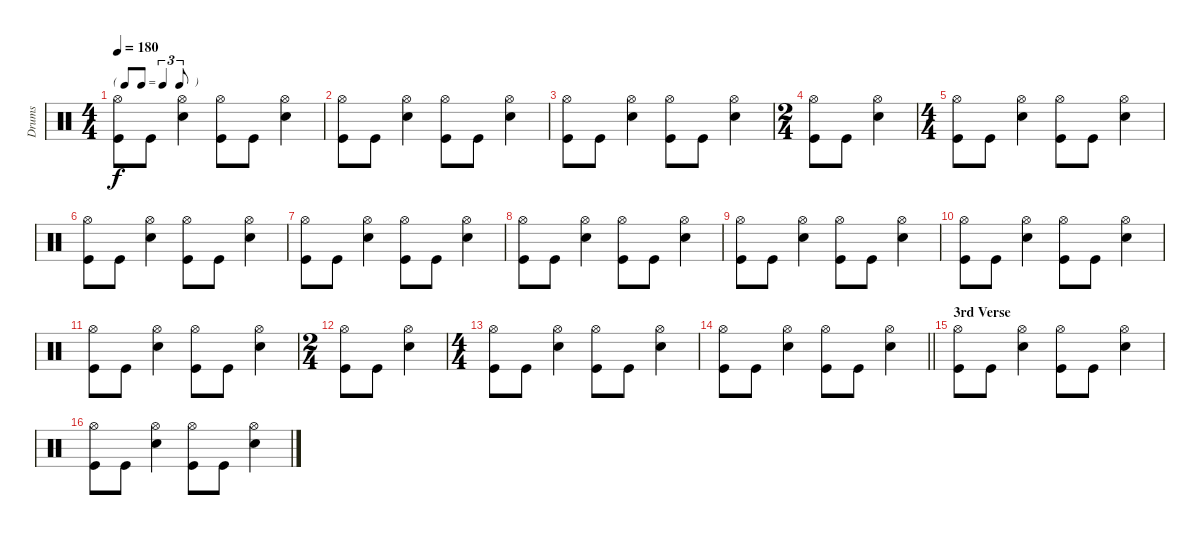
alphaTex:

\track ("Drums" "Drums") {instrument percussion}
\staff {score}
\articulation defaults
\ts (4 4)
\tf triplet8th
\tempo 180
\clef neutral
\ks c
("Hi-Hat (open)" "Kick (hit)").8{dy f} "Kick (hit)".8 ("Hi-Hat (open)" "Electric Snare (hit)").4 ("Hi-Hat (open)" "Kick (hit)").8 "Kick (hit)".8 ("Hi-Hat (open)" "Electric Snare (hit)").4 |
("Hi-Hat (open)" "Kick (hit)").8 "Kick (hit)".8 ("Hi-Hat (open)" "Electric Snare (hit)").4 ("Hi-Hat (open)" "Kick (hit)").8 "Kick (hit)".8 ("Hi-Hat (open)" "Electric Snare (hit)").4 |
("Hi-Hat (open)" "Kick (hit)").8 "Kick (hit)".8 ("Hi-Hat (open)" "Electric Snare (hit)").4 ("Hi-Hat (open)" "Kick (hit)").8 "Kick (hit)".8 ("Hi-Hat (open)" "Electric Snare (hit)").4 |
\ts (2 4)
("Hi-Hat (open)" "Kick (hit)").8 "Kick (hit)".8 ("Hi-Hat (open)" "Electric Snare (hit)").4 |
\ts (4 4)
("Hi-Hat (open)" "Kick (hit)").8 "Kick (hit)".8 ("Hi-Hat (open)" "Electric Snare (hit)").4 ("Hi-Hat (open)" "Kick (hit)").8 "Kick (hit)".8 ("Hi-Hat (open)" "Electric Snare (hit)").4 |
("Hi-Hat (open)" "Kick (hit)").8 "Kick (hit)".8 ("Hi-Hat (open)" "Electric Snare (hit)").4 ("Hi-Hat (open)" "Kick (hit)").8 "Kick (hit)".8 ("Hi-Hat (open)" "Electric Snare (hit)").4 |
("Hi-Hat (open)" "Kick (hit)").8 "Kick (hit)".8 ("Hi-Hat (open)" "Electric Snare (hit)").4 ("Hi-Hat (open)" "Kick (hit)").8 "Kick (hit)".8 ("Hi-Hat (open)" "Electric Snare (hit)").4 |
("Hi-Hat (open)" "Kick (hit)").8 "Kick (hit)".8 ("Hi-Hat (open)" "Electric Snare (hit)").4 ("Hi-Hat (open)" "Kick (hit)").8 "Kick (hit)".8 ("Hi-Hat (open)" "Electric Snare (hit)").4 |
("Hi-Hat (open)" "Kick (hit)").8 "Kick (hit)".8 ("Hi-Hat (open)" "Electric Snare (hit)").4 ("Hi-Hat (open)" "Kick (hit)").8 "Kick (hit)".8 ("Hi-Hat (open)" "Electric Snare (hit)").4 |
("Hi-Hat (open)" "Kick (hit)").8 "Kick (hit)".8 ("Hi-Hat (open)" "Electric Snare (hit)").4 ("Hi-Hat (open)" "Kick (hit)").8 "Kick (hit)".8 ("Hi-Hat (open)" "Electric Snare (hit)").4 |
("Hi-Hat (open)" "Kick (hit)").8 "Kick (hit)".8 ("Hi-Hat (open)" "Electric Snare (hit)").4 ("Hi-Hat (open)" "Kick (hit)").8 "Kick (hit)".8 ("Hi-Hat (open)" "Electric Snare (hit)").4 |
\ts (2 4)
("Hi-Hat (open)" "Kick (hit)").8 "Kick (hit)".8 ("Hi-Hat (open)" "Electric Snare (hit)").4 |
\ts (4 4)
("Hi-Hat (open)" "Kick (hit)").8 "Kick (hit)".8 ("Hi-Hat (open)" "Electric Snare (hit)").4 ("Hi-Hat (open)" "Kick (hit)").8 "Kick (hit)".8 ("Hi-Hat (open)" "Electric Snare (hit)").4 |
\barLineRight lightlight
("Hi-Hat (open)" "Kick (hit)").8 "Kick (hit)".8 ("Hi-Hat (open)" "Electric Snare (hit)").4 ("Hi-Hat (open)" "Kick (hit)").8 "Kick (hit)".8 ("Hi-Hat (open)" "Electric Snare (hit)").4 |
\section ("" "3rd Verse")
("Hi-Hat (open)" "Kick (hit)").8 "Kick (hit)".8 ("Hi-Hat (open)" "Electric Snare (hit)").4 ("Hi-Hat (open)" "Kick (hit)").8 "Kick (hit)".8 ("Hi-Hat (open)" "Electric Snare (hit)").4 |
("Hi-Hat (open)" "Kick (hit)").8 "Kick (hit)".8 ("Hi-Hat (open)" "Electric Snare (hit)").4 ("Hi-Hat (open)" "Kick (hit)").8 "Kick (hit)".8 ("Hi-Hat (open)" "Electric Snare (hit)").4
